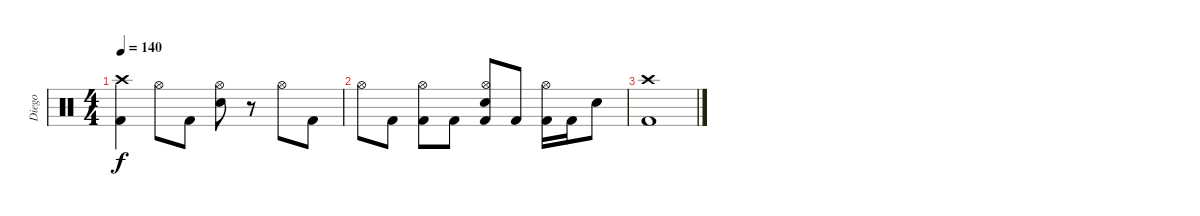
\track ("Diego" "Diego") {instrument percussion}
\staff {score}
\articulation defaults
\ts (4 4)
\tempo 140
\clef neutral
\ks c
("Crash high (hit)" "Kick (hit) 2").4{dy f} "Hi-Hat (open)".8 "Kick (hit) 2".8 ("Hi-Hat (open)" "Snare (hit) 2").8 r.8 "Hi-Hat (open)".8 "Kick (hit) 2".8 |
"Hi-Hat (open)".8 "Kick (hit) 2".8 ("Hi-Hat (open)" "Kick (hit) 2").8 "Kick (hit) 2".8 ("Hi-Hat (open)" "Snare (hit) 2" "Kick (hit) 2").8 "Kick (hit) 2".8 ("Hi-Hat (open)" "Kick (hit) 2").16 "Kick (hit) 2".16 "Electric Snare (hit)".8 |
("Crash high (hit)" "Kick (hit) 2").1
